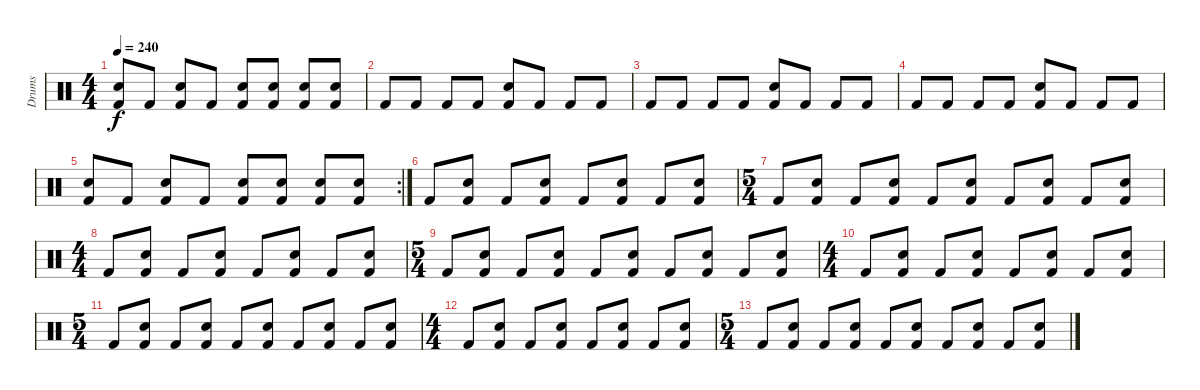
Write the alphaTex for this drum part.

\track ("Drums" "Drums") {instrument percussion}
\staff {score}
\articulation defaults
\ts (4 4)
\tempo 240
\clef neutral
\ks c
("Snare (hit) 2" "Kick (hit) 2").8{dy f} "Kick (hit) 2".8 ("Snare (hit) 2" "Kick (hit) 2").8 "Kick (hit) 2".8 ("Snare (hit) 2" "Kick (hit) 2").8 ("Snare (hit) 2" "Kick (hit) 2").8 ("Snare (hit) 2" "Kick (hit) 2").8 ("Snare (hit) 2" "Kick (hit) 2").8 |
"Kick (hit) 2".8 "Kick (hit) 2".8 "Kick (hit) 2".8 "Kick (hit) 2".8 ("Snare (hit) 2" "Kick (hit) 2").8 "Kick (hit) 2".8 "Kick (hit) 2".8 "Kick (hit) 2".8 |
"Kick (hit) 2".8 "Kick (hit) 2".8 "Kick (hit) 2".8 "Kick (hit) 2".8 ("Snare (hit) 2" "Kick (hit) 2").8 "Kick (hit) 2".8 "Kick (hit) 2".8 "Kick (hit) 2".8 |
"Kick (hit) 2".8 "Kick (hit) 2".8 "Kick (hit) 2".8 "Kick (hit) 2".8 ("Snare (hit) 2" "Kick (hit) 2").8 "Kick (hit) 2".8 "Kick (hit) 2".8 "Kick (hit) 2".8 |
\rc 2
("Snare (hit) 2" "Kick (hit) 2").8 "Kick (hit) 2".8 ("Snare (hit) 2" "Kick (hit) 2").8 "Kick (hit) 2".8 ("Snare (hit) 2" "Kick (hit) 2").8 ("Snare (hit) 2" "Kick (hit) 2").8 ("Snare (hit) 2" "Kick (hit) 2").8 ("Snare (hit) 2" "Kick (hit) 2").8 |
"Kick (hit) 2".8 ("Snare (hit) 2" "Kick (hit) 2").8 "Kick (hit) 2".8 ("Snare (hit) 2" "Kick (hit) 2").8 "Kick (hit) 2".8 ("Snare (hit) 2" "Kick (hit) 2").8 "Kick (hit) 2".8 ("Snare (hit) 2" "Kick (hit) 2").8 |
\ts (5 4)
"Kick (hit) 2".8 ("Snare (hit) 2" "Kick (hit) 2").8 "Kick (hit) 2".8 ("Snare (hit) 2" "Kick (hit) 2").8 "Kick (hit) 2".8 ("Snare (hit) 2" "Kick (hit) 2").8 "Kick (hit) 2".8 ("Snare (hit) 2" "Kick (hit) 2").8 "Kick (hit) 2".8 ("Snare (hit) 2" "Kick (hit) 2").8 |
\ts (4 4)
"Kick (hit) 2".8 ("Snare (hit) 2" "Kick (hit) 2").8 "Kick (hit) 2".8 ("Snare (hit) 2" "Kick (hit) 2").8 "Kick (hit) 2".8 ("Snare (hit) 2" "Kick (hit) 2").8 "Kick (hit) 2".8 ("Snare (hit) 2" "Kick (hit) 2").8 |
\ts (5 4)
"Kick (hit) 2".8 ("Snare (hit) 2" "Kick (hit) 2").8 "Kick (hit) 2".8 ("Snare (hit) 2" "Kick (hit) 2").8 "Kick (hit) 2".8 ("Snare (hit) 2" "Kick (hit) 2").8 "Kick (hit) 2".8 ("Snare (hit) 2" "Kick (hit) 2").8 "Kick (hit) 2".8 ("Snare (hit) 2" "Kick (hit) 2").8 |
\ts (4 4)
"Kick (hit) 2".8 ("Snare (hit) 2" "Kick (hit) 2").8 "Kick (hit) 2".8 ("Snare (hit) 2" "Kick (hit) 2").8 "Kick (hit) 2".8 ("Snare (hit) 2" "Kick (hit) 2").8 "Kick (hit) 2".8 ("Snare (hit) 2" "Kick (hit) 2").8 |
\ts (5 4)
"Kick (hit) 2".8 ("Snare (hit) 2" "Kick (hit) 2").8 "Kick (hit) 2".8 ("Snare (hit) 2" "Kick (hit) 2").8 "Kick (hit) 2".8 ("Snare (hit) 2" "Kick (hit) 2").8 "Kick (hit) 2".8 ("Snare (hit) 2" "Kick (hit) 2").8 "Kick (hit) 2".8 ("Snare (hit) 2" "Kick (hit) 2").8 |
\ts (4 4)
"Kick (hit) 2".8 ("Snare (hit) 2" "Kick (hit) 2").8 "Kick (hit) 2".8 ("Snare (hit) 2" "Kick (hit) 2").8 "Kick (hit) 2".8 ("Snare (hit) 2" "Kick (hit) 2").8 "Kick (hit) 2".8 ("Snare (hit) 2" "Kick (hit) 2").8 |
\ts (5 4)
"Kick (hit) 2".8 ("Snare (hit) 2" "Kick (hit) 2").8 "Kick (hit) 2".8 ("Snare (hit) 2" "Kick (hit) 2").8 "Kick (hit) 2".8 ("Snare (hit) 2" "Kick (hit) 2").8 "Kick (hit) 2".8 ("Snare (hit) 2" "Kick (hit) 2").8 "Kick (hit) 2".8 ("Snare (hit) 2" "Kick (hit) 2").8
